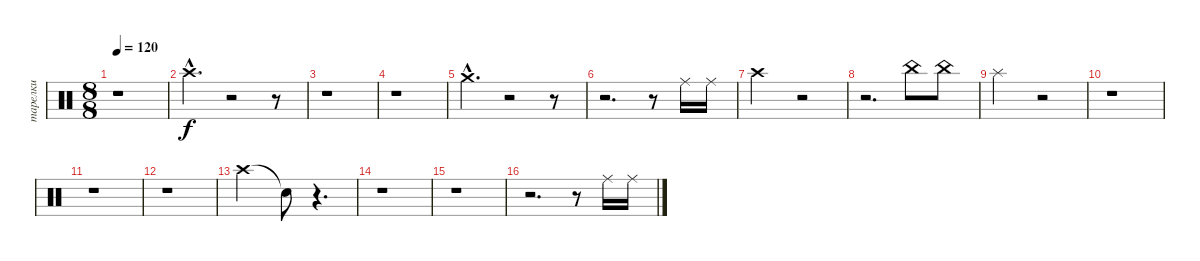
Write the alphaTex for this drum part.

\track ("тарелки" "тарелки") {instrument percussion}
\staff {score}
\articulation defaults
\ts (8 8)
\tempo 120
\clef neutral
\ks c
r.1{dy f} |
"Crash high (hit)"{hac}.4{d} r.2 r.8 |
r.1 |
r.1 |
"Crash medium (hit)"{hac}.4{d} r.2 r.8 |
r.2{d} r.8 "Ride (middle)".16 "Ride (middle)".16 |
"Crash high (hit)".2 r.2 |
r.2{d} "China (hit)".8 "China (hit)".8 |
"Splash (hit)".2 r.2 |
r.1 |
r.1 |
r.1 |
"Crash high (hit)".2 "Snare (hit)"{t}.8 r.4{d} |
r.1 |
r.1 |
r.2{d} r.8 "Ride (middle)".16 "Ride (middle)".16
